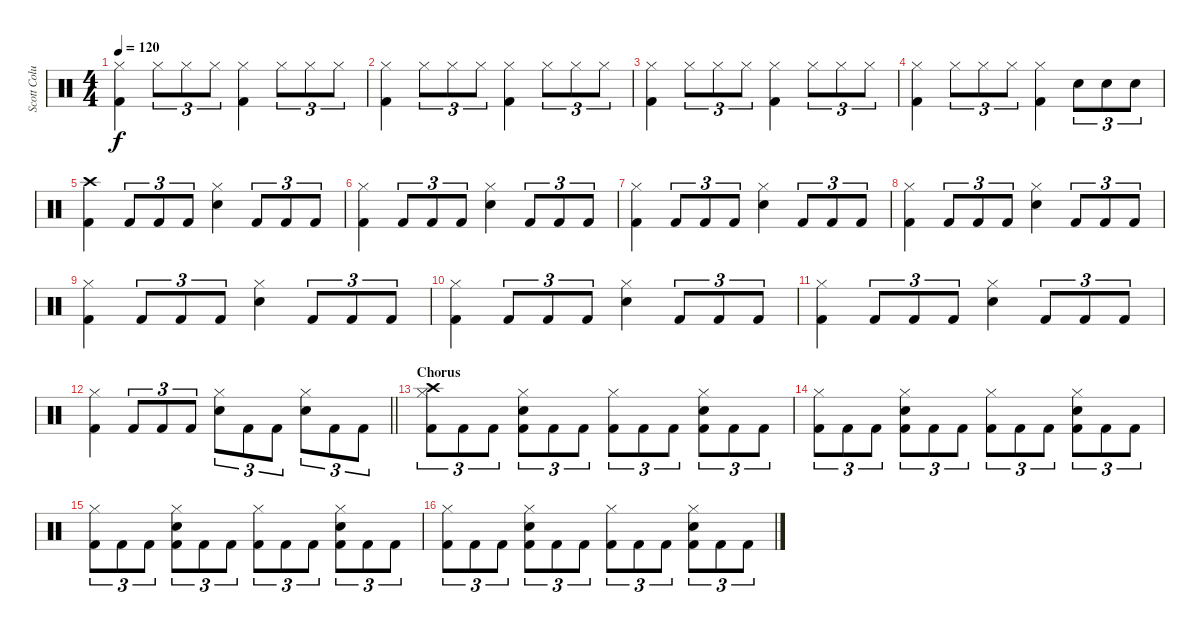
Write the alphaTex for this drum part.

\track ("Scott Columbus" "Scott Colu") {instrument percussion}
\staff {score}
\articulation defaults
\ts (4 4)
\tempo 120
\clef neutral
\ks c
("Hi-Hat (closed)" "Kick (hit) 2").4{dy f} "Hi-Hat (closed)".8{tu (3 2)} "Hi-Hat (closed)".8{tu (3 2)} "Hi-Hat (closed)".8{tu (3 2)} ("Hi-Hat (closed)" "Kick (hit) 2").4 "Hi-Hat (closed)".8{tu (3 2)} "Hi-Hat (closed)".8{tu (3 2)} "Hi-Hat (closed)".8{tu (3 2)} |
("Hi-Hat (closed)" "Kick (hit) 2").4 "Hi-Hat (closed)".8{tu (3 2)} "Hi-Hat (closed)".8{tu (3 2)} "Hi-Hat (closed)".8{tu (3 2)} ("Hi-Hat (closed)" "Kick (hit) 2").4 "Hi-Hat (closed)".8{tu (3 2)} "Hi-Hat (closed)".8{tu (3 2)} "Hi-Hat (closed)".8{tu (3 2)} |
("Hi-Hat (closed)" "Kick (hit) 2").4 "Hi-Hat (closed)".8{tu (3 2)} "Hi-Hat (closed)".8{tu (3 2)} "Hi-Hat (closed)".8{tu (3 2)} ("Hi-Hat (closed)" "Kick (hit) 2").4 "Hi-Hat (closed)".8{tu (3 2)} "Hi-Hat (closed)".8{tu (3 2)} "Hi-Hat (closed)".8{tu (3 2)} |
("Hi-Hat (closed)" "Kick (hit) 2").4 "Hi-Hat (closed)".8{tu (3 2)} "Hi-Hat (closed)".8{tu (3 2)} "Hi-Hat (closed)".8{tu (3 2)} ("Hi-Hat (closed)" "Kick (hit) 2").4 "Snare (hit) 2".8{tu (3 2)} "Snare (hit) 2".8{tu (3 2)} "Snare (hit) 2".8{tu (3 2)} |
("Crash high (hit)" "Kick (hit) 2").4 "Kick (hit) 2".8{tu (3 2)} "Kick (hit) 2".8{tu (3 2)} "Kick (hit) 2".8{tu (3 2)} ("Hi-Hat (closed)" "Snare (hit) 2").4 "Kick (hit) 2".8{tu (3 2)} "Kick (hit) 2".8{tu (3 2)} "Kick (hit) 2".8{tu (3 2)} |
("Hi-Hat (closed)" "Kick (hit) 2").4 "Kick (hit) 2".8{tu (3 2)} "Kick (hit) 2".8{tu (3 2)} "Kick (hit) 2".8{tu (3 2)} ("Hi-Hat (closed)" "Snare (hit) 2").4 "Kick (hit) 2".8{tu (3 2)} "Kick (hit) 2".8{tu (3 2)} "Kick (hit) 2".8{tu (3 2)} |
("Hi-Hat (closed)" "Kick (hit) 2").4 "Kick (hit) 2".8{tu (3 2)} "Kick (hit) 2".8{tu (3 2)} "Kick (hit) 2".8{tu (3 2)} ("Hi-Hat (closed)" "Snare (hit) 2").4 "Kick (hit) 2".8{tu (3 2)} "Kick (hit) 2".8{tu (3 2)} "Kick (hit) 2".8{tu (3 2)} |
("Hi-Hat (closed)" "Kick (hit) 2").4 "Kick (hit) 2".8{tu (3 2)} "Kick (hit) 2".8{tu (3 2)} "Kick (hit) 2".8{tu (3 2)} ("Hi-Hat (closed)" "Snare (hit) 2").4 "Kick (hit) 2".8{tu (3 2)} "Kick (hit) 2".8{tu (3 2)} "Kick (hit) 2".8{tu (3 2)} |
("Hi-Hat (closed)" "Kick (hit) 2").4 "Kick (hit) 2".8{tu (3 2)} "Kick (hit) 2".8{tu (3 2)} "Kick (hit) 2".8{tu (3 2)} ("Hi-Hat (closed)" "Snare (hit) 2").4 "Kick (hit) 2".8{tu (3 2)} "Kick (hit) 2".8{tu (3 2)} "Kick (hit) 2".8{tu (3 2)} |
("Hi-Hat (closed)" "Kick (hit) 2").4 "Kick (hit) 2".8{tu (3 2)} "Kick (hit) 2".8{tu (3 2)} "Kick (hit) 2".8{tu (3 2)} ("Hi-Hat (closed)" "Snare (hit) 2").4 "Kick (hit) 2".8{tu (3 2)} "Kick (hit) 2".8{tu (3 2)} "Kick (hit) 2".8{tu (3 2)} |
("Hi-Hat (closed)" "Kick (hit) 2").4 "Kick (hit) 2".8{tu (3 2)} "Kick (hit) 2".8{tu (3 2)} "Kick (hit) 2".8{tu (3 2)} ("Hi-Hat (closed)" "Snare (hit) 2").4 "Kick (hit) 2".8{tu (3 2)} "Kick (hit) 2".8{tu (3 2)} "Kick (hit) 2".8{tu (3 2)} |
\barLineRight lightlight
("Hi-Hat (closed)" "Kick (hit) 2").4 "Kick (hit) 2".8{tu (3 2)} "Kick (hit) 2".8{tu (3 2)} "Kick (hit) 2".8{tu (3 2)} ("Hi-Hat (closed)" "Snare (hit) 2").8{tu (3 2)} "Kick (hit) 2".8{tu (3 2)} "Kick (hit) 2".8{tu (3 2)} ("Hi-Hat (closed)" "Snare (hit) 2").8{tu (3 2)} "Kick (hit) 2".8{tu (3 2)} "Kick (hit) 2".8{tu (3 2)} |
\section ("" "Chorus")
("Crash high (hit)" "Hi-Hat (closed)" "Kick (hit) 2").8{tu (3 2)} "Kick (hit) 2".8{tu (3 2)} "Kick (hit) 2".8{tu (3 2)} ("Hi-Hat (closed)" "Snare (hit) 2" "Kick (hit) 2").8{tu (3 2)} "Kick (hit) 2".8{tu (3 2)} "Kick (hit) 2".8{tu (3 2)} ("Hi-Hat (closed)" "Kick (hit) 2").8{tu (3 2)} "Kick (hit) 2".8{tu (3 2)} "Kick (hit) 2".8{tu (3 2)} ("Hi-Hat (closed)" "Snare (hit) 2" "Kick (hit) 2").8{tu (3 2)} "Kick (hit) 2".8{tu (3 2)} "Kick (hit) 2".8{tu (3 2)} |
("Hi-Hat (closed)" "Kick (hit) 2").8{tu (3 2)} "Kick (hit) 2".8{tu (3 2)} "Kick (hit) 2".8{tu (3 2)} ("Hi-Hat (closed)" "Snare (hit) 2" "Kick (hit) 2").8{tu (3 2)} "Kick (hit) 2".8{tu (3 2)} "Kick (hit) 2".8{tu (3 2)} ("Hi-Hat (closed)" "Kick (hit) 2").8{tu (3 2)} "Kick (hit) 2".8{tu (3 2)} "Kick (hit) 2".8{tu (3 2)} ("Hi-Hat (closed)" "Snare (hit) 2" "Kick (hit) 2").8{tu (3 2)} "Kick (hit) 2".8{tu (3 2)} "Kick (hit) 2".8{tu (3 2)} |
("Hi-Hat (closed)" "Kick (hit) 2").8{tu (3 2)} "Kick (hit) 2".8{tu (3 2)} "Kick (hit) 2".8{tu (3 2)} ("Hi-Hat (closed)" "Snare (hit) 2" "Kick (hit) 2").8{tu (3 2)} "Kick (hit) 2".8{tu (3 2)} "Kick (hit) 2".8{tu (3 2)} ("Hi-Hat (closed)" "Kick (hit) 2").8{tu (3 2)} "Kick (hit) 2".8{tu (3 2)} "Kick (hit) 2".8{tu (3 2)} ("Hi-Hat (closed)" "Snare (hit) 2" "Kick (hit) 2").8{tu (3 2)} "Kick (hit) 2".8{tu (3 2)} "Kick (hit) 2".8{tu (3 2)} |
("Hi-Hat (closed)" "Kick (hit) 2").8{tu (3 2)} "Kick (hit) 2".8{tu (3 2)} "Kick (hit) 2".8{tu (3 2)} ("Hi-Hat (closed)" "Snare (hit) 2" "Kick (hit) 2").8{tu (3 2)} "Kick (hit) 2".8{tu (3 2)} "Kick (hit) 2".8{tu (3 2)} ("Hi-Hat (closed)" "Kick (hit) 2").8{tu (3 2)} "Kick (hit) 2".8{tu (3 2)} "Kick (hit) 2".8{tu (3 2)} ("Hi-Hat (closed)" "Snare (hit) 2" "Kick (hit) 2").8{tu (3 2)} "Kick (hit) 2".8{tu (3 2)} "Kick (hit) 2".8{tu (3 2)}
